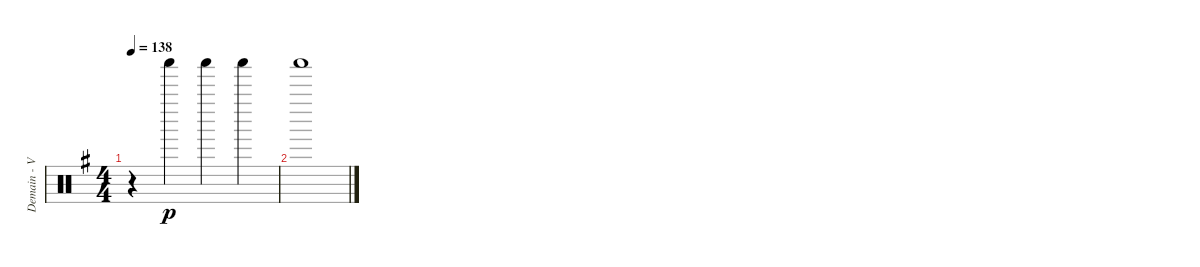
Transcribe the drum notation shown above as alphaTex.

\track ("Demain - Various Perc." "Demain - V") {instrument percussion}
\staff {score}
\articulation defaults
\ts (4 4)
\tempo 138
\clef neutral
\ks g
r.4{dy p} "Shaker (hit)".4 "Shaker (hit)".4 "Shaker (hit)".4 |
"Shaker (hit)".1
